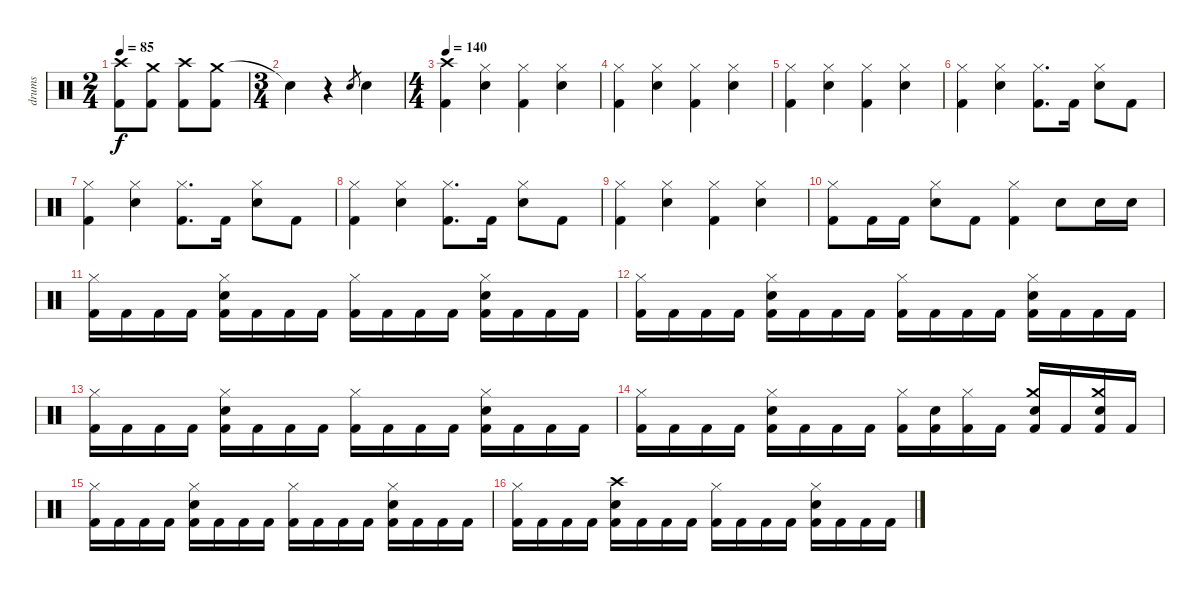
\track ("drums" "drums") {instrument percussion}
\staff {score}
\articulation defaults
\ts (2 4)
\tempo 85
\clef neutral
\ks c
("Crash high (hit)" "Kick (hit) 2").8{dy f} ("Crash medium (hit)" "Kick (hit) 2").8 ("Crash high (hit)" "Kick (hit) 2").8 ("Crash medium (hit)" "Kick (hit) 2").8 |
\ts (3 4)
"Snare (hit)"{t}.4 r.4 "Electric Snare (hit)".8{gr} "Electric Snare (hit)".4 |
\ts (4 4)
\tempo 140
("Crash high (hit)" "Kick (hit) 2").4 ("Hi-Hat (closed)" "Electric Snare (hit)").4 ("Hi-Hat (closed)" "Kick (hit) 2").4 ("Hi-Hat (closed)" "Electric Snare (hit)").4 |
("Hi-Hat (closed)" "Kick (hit) 2").4 ("Hi-Hat (closed)" "Electric Snare (hit)").4 ("Hi-Hat (closed)" "Kick (hit) 2").4 ("Hi-Hat (closed)" "Electric Snare (hit)").4 |
("Hi-Hat (closed)" "Kick (hit) 2").4 ("Hi-Hat (closed)" "Electric Snare (hit)").4 ("Hi-Hat (closed)" "Kick (hit) 2").4 ("Hi-Hat (closed)" "Electric Snare (hit)").4 |
("Hi-Hat (closed)" "Kick (hit) 2").4 ("Hi-Hat (closed)" "Electric Snare (hit)").4 ("Hi-Hat (closed)" "Kick (hit) 2").8{d} "Kick (hit) 2".16 ("Hi-Hat (closed)" "Electric Snare (hit)").8 "Kick (hit) 2".8 |
("Hi-Hat (closed)" "Kick (hit) 2").4 ("Hi-Hat (closed)" "Electric Snare (hit)").4 ("Hi-Hat (closed)" "Kick (hit) 2").8{d} "Kick (hit) 2".16 ("Hi-Hat (closed)" "Electric Snare (hit)").8 "Kick (hit) 2".8 |
("Hi-Hat (closed)" "Kick (hit) 2").4 ("Hi-Hat (closed)" "Electric Snare (hit)").4 ("Hi-Hat (closed)" "Kick (hit) 2").8{d} "Kick (hit) 2".16 ("Hi-Hat (closed)" "Electric Snare (hit)").8 "Kick (hit) 2".8 |
("Hi-Hat (closed)" "Kick (hit) 2").4 ("Hi-Hat (closed)" "Electric Snare (hit)").4 ("Hi-Hat (closed)" "Kick (hit) 2").4 ("Hi-Hat (closed)" "Electric Snare (hit)").4 |
("Hi-Hat (closed)" "Kick (hit) 2").8 "Kick (hit) 2".16 "Kick (hit) 2".16 ("Hi-Hat (closed)" "Electric Snare (hit)").8 "Kick (hit) 2".8 ("Hi-Hat (closed)" "Kick (hit) 2").4 "Electric Snare (hit)".8 "Electric Snare (hit)".16 "Electric Snare (hit)".16 |
("Hi-Hat (closed)" "Kick (hit) 2").16 "Kick (hit) 2".16 "Kick (hit) 2".16 "Kick (hit) 2".16 ("Hi-Hat (closed)" "Electric Snare (hit)" "Kick (hit) 2").16 "Kick (hit) 2".16 "Kick (hit) 2".16 "Kick (hit) 2".16 ("Hi-Hat (closed)" "Kick (hit) 2").16 "Kick (hit) 2".16 "Kick (hit) 2".16 "Kick (hit) 2".16 ("Hi-Hat (closed)" "Electric Snare (hit)" "Kick (hit) 2").16 "Kick (hit) 2".16 "Kick (hit) 2".16 "Kick (hit) 2".16 |
("Hi-Hat (closed)" "Kick (hit) 2").16 "Kick (hit) 2".16 "Kick (hit) 2".16 "Kick (hit) 2".16 ("Hi-Hat (closed)" "Electric Snare (hit)" "Kick (hit) 2").16 "Kick (hit) 2".16 "Kick (hit) 2".16 "Kick (hit) 2".16 ("Hi-Hat (closed)" "Kick (hit) 2").16 "Kick (hit) 2".16 "Kick (hit) 2".16 "Kick (hit) 2".16 ("Hi-Hat (closed)" "Electric Snare (hit)" "Kick (hit) 2").16 "Kick (hit) 2".16 "Kick (hit) 2".16 "Kick (hit) 2".16 |
("Hi-Hat (closed)" "Kick (hit) 2").16 "Kick (hit) 2".16 "Kick (hit) 2".16 "Kick (hit) 2".16 ("Hi-Hat (closed)" "Electric Snare (hit)" "Kick (hit) 2").16 "Kick (hit) 2".16 "Kick (hit) 2".16 "Kick (hit) 2".16 ("Hi-Hat (closed)" "Kick (hit) 2").16 "Kick (hit) 2".16 "Kick (hit) 2".16 "Kick (hit) 2".16 ("Hi-Hat (closed)" "Electric Snare (hit)" "Kick (hit) 2").16 "Kick (hit) 2".16 "Kick (hit) 2".16 "Kick (hit) 2".16 |
("Hi-Hat (closed)" "Kick (hit) 2").16 "Kick (hit) 2".16 "Kick (hit) 2".16 "Kick (hit) 2".16 ("Hi-Hat (closed)" "Electric Snare (hit)" "Kick (hit) 2").16 "Kick (hit) 2".16 "Kick (hit) 2".16 "Kick (hit) 2".16 ("Hi-Hat (closed)" "Kick (hit) 2").16 ("Electric Snare (hit)" "Kick (hit) 2").16 ("Hi-Hat (closed)" "Kick (hit) 2").16 "Kick (hit) 2".16 ("Crash medium (hit)" "Electric Snare (hit)" "Kick (hit) 2").16 "Kick (hit) 2".16 ("Crash medium (hit)" "Electric Snare (hit)" "Kick (hit) 2").16 "Kick (hit) 2".16 |
("Hi-Hat (closed)" "Kick (hit) 2").16 "Kick (hit) 2".16 "Kick (hit) 2".16 "Kick (hit) 2".16 ("Hi-Hat (closed)" "Electric Snare (hit)" "Kick (hit) 2").16 "Kick (hit) 2".16 "Kick (hit) 2".16 "Kick (hit) 2".16 ("Hi-Hat (closed)" "Kick (hit) 2").16 "Kick (hit) 2".16 "Kick (hit) 2".16 "Kick (hit) 2".16 ("Hi-Hat (closed)" "Electric Snare (hit)" "Kick (hit) 2").16 "Kick (hit) 2".16 "Kick (hit) 2".16 "Kick (hit) 2".16 |
("Hi-Hat (closed)" "Kick (hit) 2").16 "Kick (hit) 2".16 "Kick (hit) 2".16 "Kick (hit) 2".16 ("Crash high (hit)" "Electric Snare (hit)" "Kick (hit) 2").16 "Kick (hit) 2".16 "Kick (hit) 2".16 "Kick (hit) 2".16 ("Hi-Hat (closed)" "Kick (hit) 2").16 "Kick (hit) 2".16 "Kick (hit) 2".16 "Kick (hit) 2".16 ("Hi-Hat (closed)" "Electric Snare (hit)" "Kick (hit) 2").16 "Kick (hit) 2".16 "Kick (hit) 2".16 "Kick (hit) 2".16
